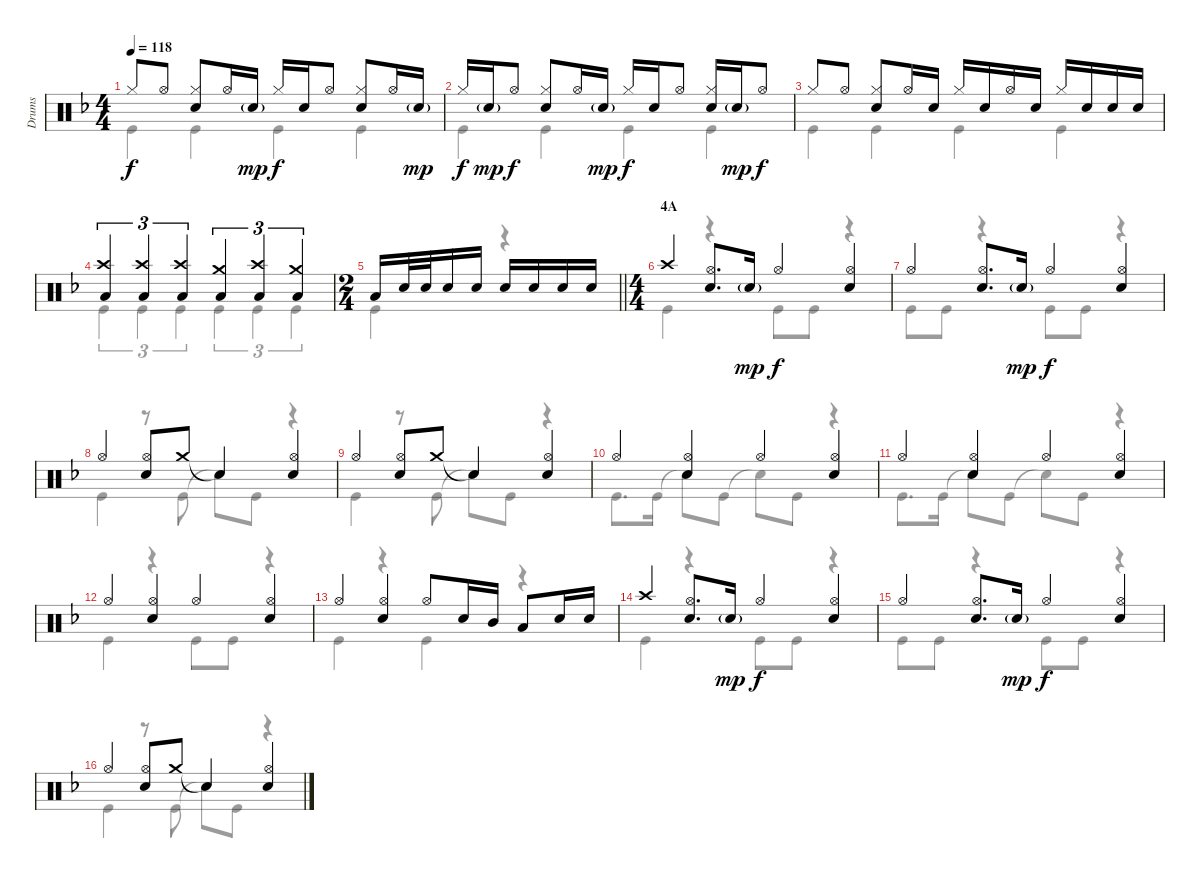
\track ("Drums" "Drums") {instrument percussion}
\staff {score}
\articulation defaults
\voice
\ts (4 4)
\tempo 118
\clef neutral
\ks f "Hi-Hat (closed)".8{dy f} "Hi-Hat (open)".8
("Hi-Hat (closed)" "Snare (hit) 2").8 "Hi-Hat (open)".16 "Snare (hit) 2"{g}.16{dy mp} "Hi-Hat (closed)".16{dy f} "Snare (hit) 2".16 "Hi-Hat (open)".8 ("Hi-Hat (closed)" "Snare (hit) 2").8 "Hi-Hat (open)".16 "Snare (hit) 2"{g}.16{dy mp} |
"Hi-Hat (closed)".16{dy f} "Snare (hit) 2"{g}.16{dy mp} "Hi-Hat (open)".8{dy f} ("Hi-Hat (closed)" "Snare (hit) 2").8 "Hi-Hat (open)".16 "Snare (hit) 2"{g}.16{dy mp} "Hi-Hat (closed)".16{dy f} "Snare (hit) 2".16 "Hi-Hat (open)".8 ("Hi-Hat (closed)" "Snare (hit) 2").16 "Snare (hit) 2"{g}.16{dy mp} "Hi-Hat (open)".8{dy f} |
"Hi-Hat (closed)".8 "Hi-Hat (open)".8 ("Hi-Hat (closed)" "Snare (hit) 2").8 "Hi-Hat (open)".16 "Snare (hit) 2".16 "Hi-Hat (closed)".16 "Snare (hit) 2".16 "Hi-Hat (open)".16 "Snare (hit) 2".16 "Hi-Hat (closed)".16 "Snare (hit) 2".16 "Snare (hit) 2".16 "Snare (hit) 2".16 |
("Crash high (hit)" "Low Tom (hit)").4{tu (3 2)} ("Crash high (hit)" "Low Tom (hit)").4{tu (3 2)} ("Crash high (hit)" "Low Tom (hit)").4{tu (3 2)} ("Crash medium (hit)" "Low Tom (hit)").4{tu (3 2)} ("Crash high (hit)" "Low Tom (hit)").4{tu (3 2)} ("Crash medium (hit)" "Low Tom (hit)").4{tu (3 2)} |
\ts (2 4)
\barLineRight lightlight "Low Tom (hit)".16 "Snare (hit) 2".32 "Snare (hit) 2".32 "Snare (hit) 2".16 "Snare (hit) 2".16 "Snare (hit) 2".16 "Snare (hit) 2".16 "Snare (hit) 2".16 "Snare (hit) 2".16
|
\ts (4 4)
\section ("" "4A")
"Crash high (hit)".4 ("Hi-Hat (open)" "Snare (hit) 2").8{d} "Snare (hit) 2"{g}.16{dy mp} "Hi-Hat (open)".4{dy f} ("Hi-Hat (open)" "Snare (hit) 2").4 |
"Hi-Hat (open)".4 ("Hi-Hat (open)" "Snare (hit) 2").8{d} "Snare (hit) 2"{g}.16{dy mp} "Hi-Hat (open)".4{dy f} ("Hi-Hat (open)" "Snare (hit) 2").4 |
"Hi-Hat (open)".4 ("Hi-Hat (open)" "Snare (hit) 2").8 "Crash medium (hit)".8 "Snare (hit)"{t}.4 ("Hi-Hat (open)" "Snare (hit) 2").4 |
"Hi-Hat (open)".4 ("Hi-Hat (open)" "Snare (hit) 2").8 "Crash medium (hit)".8 "Snare (hit)"{t}.4 ("Hi-Hat (open)" "Snare (hit) 2").4 |
"Hi-Hat (open)".4 ("Hi-Hat (open)" "Snare (hit) 2").4 "Hi-Hat (open)".4 ("Hi-Hat (open)" "Snare (hit) 2").4 |
"Hi-Hat (open)".4 ("Hi-Hat (open)" "Snare (hit) 2").4 "Hi-Hat (open)".4 ("Hi-Hat (open)" "Snare (hit) 2").4 |
"Hi-Hat (open)".4 ("Hi-Hat (open)" "Snare (hit) 2").4 "Hi-Hat (open)".4 ("Hi-Hat (open)" "Snare (hit) 2").4 |
"Hi-Hat (open)".4 ("Hi-Hat (open)" "Snare (hit) 2").4 "Hi-Hat (open)".8 "Snare (hit) 2".16 "Mid Tom (hit)".16 "Low Tom (hit)".8 "Snare (hit) 2".16 "Snare (hit) 2".16 |
"Crash high (hit)".4 ("Hi-Hat (open)" "Snare (hit) 2").8{d} "Snare (hit) 2"{g}.16{dy mp} "Hi-Hat (open)".4{dy f} ("Hi-Hat (open)" "Snare (hit) 2").4 |
"Hi-Hat (open)".4 ("Hi-Hat (open)" "Snare (hit) 2").8{d} "Snare (hit) 2"{g}.16{dy mp} "Hi-Hat (open)".4{dy f} ("Hi-Hat (open)" "Snare (hit) 2").4 |
"Hi-Hat (open)".4 ("Hi-Hat (open)" "Snare (hit) 2").8 "Crash medium (hit)".8 "Snare (hit)"{t}.4 ("Hi-Hat (open)" "Snare (hit) 2").4
\voice
\clef neutral
\ottava regular
\simile none
\ks f "Kick (hit)".4{dy f} "Kick (hit)".4 "Kick (hit)".4 "Kick (hit)".4
|
"Kick (hit)".4 "Kick (hit)".4 "Kick (hit)".4 "Kick (hit)".4 |
"Kick (hit)".4 "Kick (hit)".4 "Kick (hit)".4 "Kick (hit)".4 |
"Kick (hit)".4{tu (3 2)} "Kick (hit)".4{tu (3 2)} "Kick (hit)".4{tu (3 2)} "Kick (hit)".4{tu (3 2)} "Kick (hit)".4{tu (3 2)} "Kick (hit)".4{tu (3 2)} |
\barLineRight lightlight "Kick (hit)".4
r.4 |
"Kick (hit)".4 r.4 "Kick (hit)".8 "Kick (hit)".8 r.4 |
"Kick (hit)".8 "Kick (hit)".8 r.4 "Kick (hit)".8 "Kick (hit)".8 r.4 |
"Kick (hit)".4 r.8 "Kick (hit)".8 "Snare (hit)"{t}.8 "Kick (hit)".8 r.4 |
"Kick (hit)".4 r.8 "Kick (hit)".8 "Snare (hit)"{t}.8 "Kick (hit)".8 r.4 |
"Kick (hit)".8{d} "Kick (hit)".16 "Snare (hit)"{t}.8 "Kick (hit)".8 "Snare (hit)"{t}.8 "Kick (hit)".8 r.4 |
"Kick (hit)".8{d} "Kick (hit)".16 "Snare (hit)"{t}.8 "Kick (hit)".8 "Snare (hit)"{t}.8 "Kick (hit)".8 r.4 |
"Kick (hit)".4 r.4 "Kick (hit)".8 "Kick (hit)".8 r.4 |
"Kick (hit)".4 r.4 "Kick (hit)".4 r.4 |
"Kick (hit)".4 r.4 "Kick (hit)".8 "Kick (hit)".8 r.4 |
"Kick (hit)".8 "Kick (hit)".8 r.4 "Kick (hit)".8 "Kick (hit)".8 r.4 |
"Kick (hit)".4 r.8 "Kick (hit)".8 "Snare (hit)"{t}.8 "Kick (hit)".8 r.4
